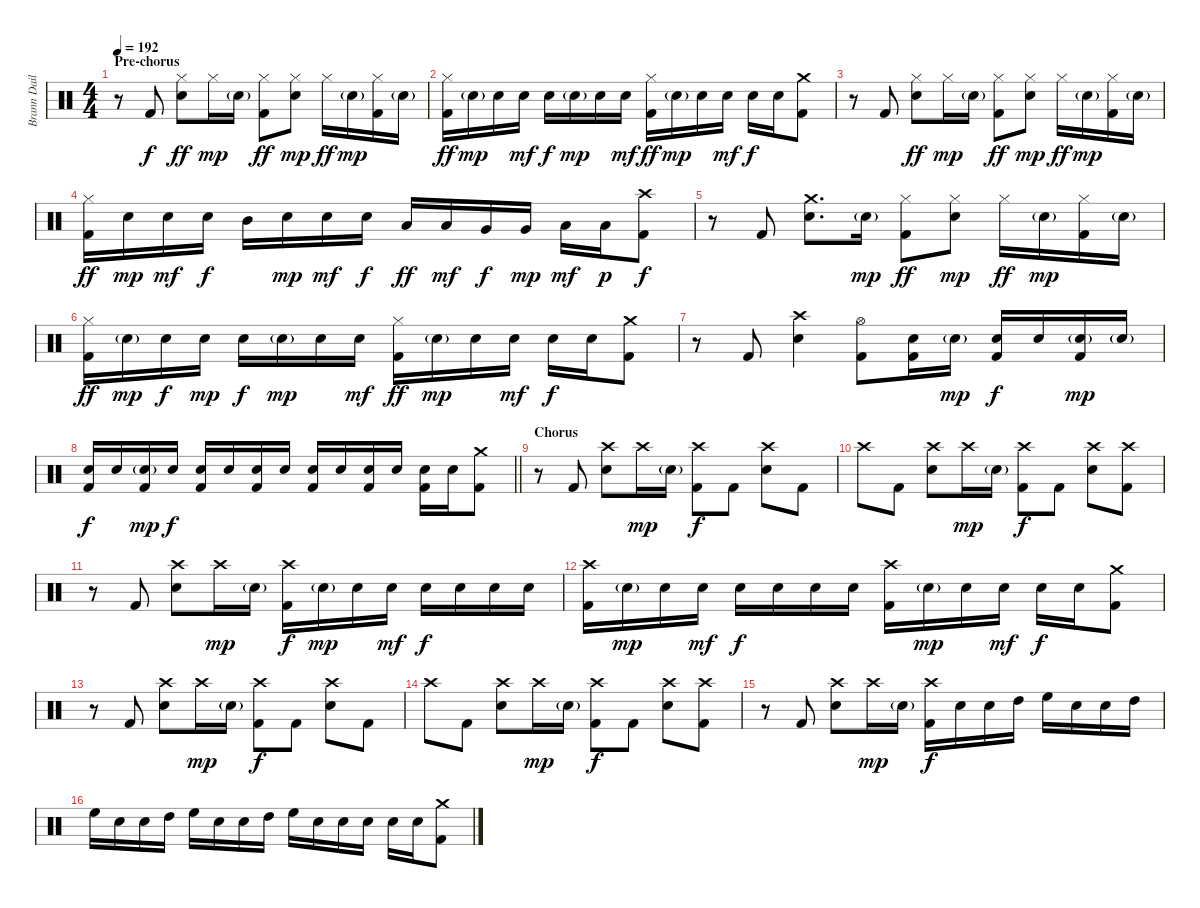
\track ("Brann Dailor - Drums" "Brann Dail") {instrument percussion}
\staff {score}
\articulation defaults
\ts (4 4)
\section ("" "Pre-chorus")
\tempo 192
\clef neutral
\ks c
r.8{dy f} "Kick (hit) 2".8 ("Hi-Hat (closed)" "Electric Snare (hit)").8{dy ff} "Hi-Hat (closed)".16{dy mp} "Electric Snare (hit)"{g}.16 ("Hi-Hat (closed)" "Kick (hit) 2").8{dy ff} ("Hi-Hat (closed)" "Electric Snare (hit)").8{dy mp} "Hi-Hat (closed)".16{dy ff} "Electric Snare (hit)"{g}.16{dy mp} ("Hi-Hat (closed)" "Kick (hit) 2").16 "Electric Snare (hit)"{g}.16 |
("Hi-Hat (closed)" "Kick (hit) 2").16{dy ff} "Electric Snare (hit)"{g}.16{dy mp} "Electric Snare (hit)".16 "Electric Snare (hit)".16{dy mf} "Electric Snare (hit)".16{dy f} "Electric Snare (hit)"{g}.16{dy mp} "Electric Snare (hit)".16 "Electric Snare (hit)".16{dy mf} ("Hi-Hat (closed)" "Kick (hit) 2").16{dy ff} "Electric Snare (hit)"{g}.16{dy mp} "Electric Snare (hit)".16 "Electric Snare (hit)".16{dy mf} "Electric Snare (hit)".16{dy f} "Electric Snare (hit)".16 ("Crash medium (hit)" "Kick (hit) 2").8 |
r.8 "Kick (hit) 2".8 ("Hi-Hat (closed)" "Electric Snare (hit)").8{dy ff} "Hi-Hat (closed)".16{dy mp} "Electric Snare (hit)"{g}.16 ("Hi-Hat (closed)" "Kick (hit) 2").8{dy ff} ("Hi-Hat (closed)" "Electric Snare (hit)").8{dy mp} "Hi-Hat (closed)".16{dy ff} "Electric Snare (hit)"{g}.16{dy mp} ("Hi-Hat (closed)" "Kick (hit) 2").16 "Electric Snare (hit)"{g}.16 |
("Hi-Hat (closed)" "Kick (hit) 2").16{dy ff} "Electric Snare (hit)".16{dy mp} "Electric Snare (hit)".16{dy mf} "Electric Snare (hit)".16{dy f} "Mid Tom (hit)".16 "Electric Snare (hit)".16{dy mp} "Electric Snare (hit)".16{dy mf} "Electric Snare (hit)".16{dy f} "Low Tom (hit)".16{dy ff} "Low Tom (hit)".16{dy mf} "Very Low Tom (hit)".16{dy f} "Very Low Tom (hit)".16{dy mp} "Low Floor Tom (hit)".16{dy mf} "Low Floor Tom (hit)".16{dy p} ("Crash high (hit)" "Kick (hit) 2").8{dy f} |
r.8 "Kick (hit) 2".8 ("Crash medium (hit)" "Electric Snare (hit)").8{d} "Electric Snare (hit)"{g}.16{dy mp} ("Hi-Hat (closed)" "Kick (hit) 2").8{dy ff} ("Hi-Hat (closed)" "Electric Snare (hit)").8{dy mp} "Hi-Hat (closed)".16{dy ff} "Electric Snare (hit)"{g}.16{dy mp} ("Hi-Hat (closed)" "Kick (hit) 2").16 "Electric Snare (hit)"{g}.16 |
("Hi-Hat (closed)" "Kick (hit) 2").16{dy ff} "Electric Snare (hit)"{g}.16{dy mp} "Electric Snare (hit)".16{dy f} "Electric Snare (hit)".16{dy mp} "Electric Snare (hit)".16{dy f} "Electric Snare (hit)"{g}.16{dy mp} "Electric Snare (hit)".16 "Electric Snare (hit)".16{dy mf} ("Hi-Hat (closed)" "Kick (hit) 2").16{dy ff} "Electric Snare (hit)"{g}.16{dy mp} "Electric Snare (hit)".16 "Electric Snare (hit)".16{dy mf} "Electric Snare (hit)".16{dy f} "Electric Snare (hit)".16 ("Crash medium (hit)" "Kick (hit) 2").8 |
r.8 "Kick (hit) 2".8 ("Crash high (hit)" "Electric Snare (hit)").4 ("Hi-Hat (open)" "Kick (hit) 2").8 ("Electric Snare (hit)" "Kick (hit) 2").16 "Electric Snare (hit)"{g}.16{dy mp} ("Electric Snare (hit)" "Kick (hit) 2").16{dy f} "Electric Snare (hit)".16 ("Electric Snare (hit)"{g} "Kick (hit) 2").16{dy mp} "Electric Snare (hit)"{g}.16 |
\barLineRight lightlight
("Electric Snare (hit)" "Kick (hit) 2").16{dy f} "Electric Snare (hit)".16 ("Electric Snare (hit)"{g} "Kick (hit) 2").16{dy mp} "Electric Snare (hit)".16{dy f} ("Electric Snare (hit)" "Kick (hit) 2").16 "Electric Snare (hit)".16 ("Electric Snare (hit)" "Kick (hit) 2").16 "Electric Snare (hit)".16 ("Electric Snare (hit)" "Kick (hit) 2").16 "Electric Snare (hit)".16 ("Electric Snare (hit)" "Kick (hit) 2").16 "Electric Snare (hit)".16 ("Electric Snare (hit)" "Kick (hit) 2").16 "Electric Snare (hit)".16 ("Crash medium (hit)" "Kick (hit) 2").8 |
\section ("" "Chorus")
r.8 "Kick (hit) 2".8 ("Crash high (hit)" "Electric Snare (hit)").8 "Crash high (hit)".16{dy mp} "Electric Snare (hit)"{g}.16 ("Crash high (hit)" "Kick (hit) 2").8{dy f} "Kick (hit) 2".8 ("Crash high (hit)" "Electric Snare (hit)").8 "Kick (hit) 2".8 |
"Crash high (hit)".8 "Kick (hit) 2".8 ("Crash high (hit)" "Electric Snare (hit)").8 "Crash high (hit)".16{dy mp} "Electric Snare (hit)"{g}.16 ("Crash high (hit)" "Kick (hit) 2").8{dy f} "Kick (hit) 2".8 ("Crash high (hit)" "Electric Snare (hit)").8 ("Crash high (hit)" "Kick (hit) 2").8 |
r.8 "Kick (hit) 2".8 ("Crash high (hit)" "Electric Snare (hit)").8 "Crash high (hit)".16{dy mp} "Electric Snare (hit)"{g}.16 ("Crash high (hit)" "Kick (hit) 2").16{dy f} "Electric Snare (hit)"{g}.16{dy mp} "Electric Snare (hit)".16 "Electric Snare (hit)".16{dy mf} "Electric Snare (hit)".16{dy f} "Electric Snare (hit)".16 "Electric Snare (hit)".16 "Electric Snare (hit)".16 |
("Crash high (hit)" "Kick (hit) 2").16 "Electric Snare (hit)"{g}.16{dy mp} "Electric Snare (hit)".16 "Electric Snare (hit)".16{dy mf} "Electric Snare (hit)".16{dy f} "Electric Snare (hit)".16 "Electric Snare (hit)".16 "Electric Snare (hit)".16 ("Crash high (hit)" "Kick (hit) 2").16 "Electric Snare (hit)"{g}.16{dy mp} "Electric Snare (hit)".16 "Electric Snare (hit)".16{dy mf} "Electric Snare (hit)".16{dy f} "Electric Snare (hit)".16 ("Crash medium (hit)" "Kick (hit) 2").8 |
r.8 "Kick (hit) 2".8 ("Crash high (hit)" "Electric Snare (hit)").8 "Crash high (hit)".16{dy mp} "Electric Snare (hit)"{g}.16 ("Crash high (hit)" "Kick (hit) 2").8{dy f} "Kick (hit) 2".8 ("Crash high (hit)" "Electric Snare (hit)").8 "Kick (hit) 2".8 |
"Crash high (hit)".8 "Kick (hit) 2".8 ("Crash high (hit)" "Electric Snare (hit)").8 "Crash high (hit)".16{dy mp} "Electric Snare (hit)"{g}.16 ("Crash high (hit)" "Kick (hit) 2").8{dy f} "Kick (hit) 2".8 ("Crash high (hit)" "Electric Snare (hit)").8 ("Crash high (hit)" "Kick (hit) 2").8 |
r.8 "Kick (hit) 2".8 ("Crash high (hit)" "Electric Snare (hit)").8 "Crash high (hit)".16{dy mp} "Electric Snare (hit)"{g}.16 ("Crash high (hit)" "Kick (hit) 2").16{dy f} "Electric Snare (hit)".16 "Electric Snare (hit)".16 "High Tom (hit)".16 "High Floor Tom (hit)".16 "Electric Snare (hit)".16 "Electric Snare (hit)".16 "High Tom (hit)".16 |
"High Floor Tom (hit)".16 "Electric Snare (hit)".16 "Electric Snare (hit)".16 "High Tom (hit)".16 "High Floor Tom (hit)".16 "Electric Snare (hit)".16 "Electric Snare (hit)".16 "High Tom (hit)".16 "High Floor Tom (hit)".16 "Electric Snare (hit)".16 "Electric Snare (hit)".16 "Electric Snare (hit)".16 "Electric Snare (hit)".16 "Electric Snare (hit)".16 ("Crash medium (hit)" "Kick (hit) 2").8
